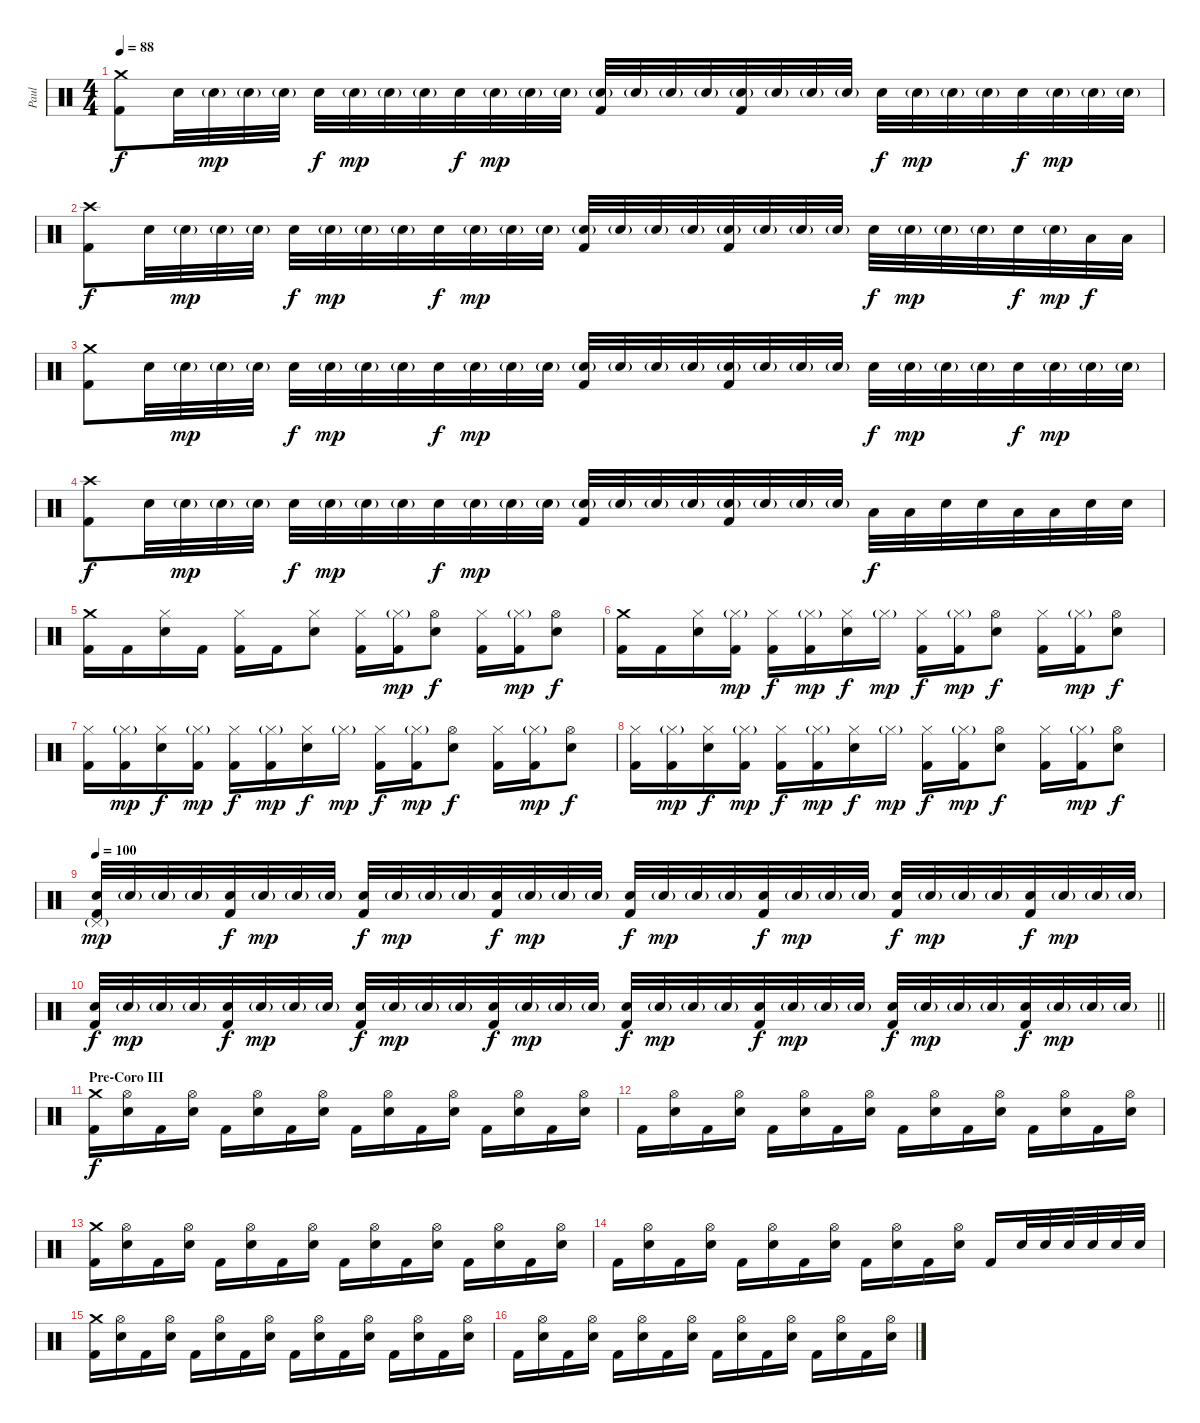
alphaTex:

\track ("Paul" "Paul") {instrument percussion}
\staff
\articulation defaults
\ts (4 4)
\tempo 88
\clef neutral
\ks c
("Crash medium (hit)" "Kick (hit) 2").8{dy f} "Electric Snare (hit)".32 "Electric Snare (hit)"{g}.32{dy mp} "Electric Snare (hit)"{g}.32 "Electric Snare (hit)"{g}.32 "Electric Snare (hit)".32{dy f} "Electric Snare (hit)"{g}.32{dy mp} "Electric Snare (hit)"{g}.32 "Electric Snare (hit)"{g}.32 "Electric Snare (hit)".32{dy f} "Electric Snare (hit)"{g}.32{dy mp} "Electric Snare (hit)"{g}.32 "Electric Snare (hit)"{g}.32 ("Electric Snare (hit)"{g} "Kick (hit) 2").32 "Electric Snare (hit)"{g}.32 "Electric Snare (hit)"{g}.32 "Electric Snare (hit)"{g}.32 ("Electric Snare (hit)"{g} "Kick (hit) 2").32 "Electric Snare (hit)"{g}.32 "Electric Snare (hit)"{g}.32 "Electric Snare (hit)"{g}.32 "Electric Snare (hit)".32{dy f} "Electric Snare (hit)"{g}.32{dy mp} "Electric Snare (hit)"{g}.32 "Electric Snare (hit)"{g}.32 "Electric Snare (hit)".32{dy f} "Electric Snare (hit)"{g}.32{dy mp} "Electric Snare (hit)"{g}.32 "Electric Snare (hit)"{g}.32 |
("Crash high (hit)" "Kick (hit) 2").8{dy f} "Electric Snare (hit)".32 "Electric Snare (hit)"{g}.32{dy mp} "Electric Snare (hit)"{g}.32 "Electric Snare (hit)"{g}.32 "Electric Snare (hit)".32{dy f} "Electric Snare (hit)"{g}.32{dy mp} "Electric Snare (hit)"{g}.32 "Electric Snare (hit)"{g}.32 "Electric Snare (hit)".32{dy f} "Electric Snare (hit)"{g}.32{dy mp} "Electric Snare (hit)"{g}.32 "Electric Snare (hit)"{g}.32 ("Electric Snare (hit)"{g} "Kick (hit) 2").32 "Electric Snare (hit)"{g}.32 "Electric Snare (hit)"{g}.32 "Electric Snare (hit)"{g}.32 ("Electric Snare (hit)"{g} "Kick (hit) 2").32 "Electric Snare (hit)"{g}.32 "Electric Snare (hit)"{g}.32 "Electric Snare (hit)"{g}.32 "Electric Snare (hit)".32{dy f} "Electric Snare (hit)"{g}.32{dy mp} "Electric Snare (hit)"{g}.32 "Electric Snare (hit)"{g}.32 "Electric Snare (hit)".32{dy f} "Electric Snare (hit)"{g}.32{dy mp} "Low Tom (hit)".32{dy f} "Low Tom (hit)".32 |
("Crash medium (hit)" "Kick (hit) 2").8 "Electric Snare (hit)".32 "Electric Snare (hit)"{g}.32{dy mp} "Electric Snare (hit)"{g}.32 "Electric Snare (hit)"{g}.32 "Electric Snare (hit)".32{dy f} "Electric Snare (hit)"{g}.32{dy mp} "Electric Snare (hit)"{g}.32 "Electric Snare (hit)"{g}.32 "Electric Snare (hit)".32{dy f} "Electric Snare (hit)"{g}.32{dy mp} "Electric Snare (hit)"{g}.32 "Electric Snare (hit)"{g}.32 ("Electric Snare (hit)"{g} "Kick (hit) 2").32 "Electric Snare (hit)"{g}.32 "Electric Snare (hit)"{g}.32 "Electric Snare (hit)"{g}.32 ("Electric Snare (hit)"{g} "Kick (hit) 2").32 "Electric Snare (hit)"{g}.32 "Electric Snare (hit)"{g}.32 "Electric Snare (hit)"{g}.32 "Electric Snare (hit)".32{dy f} "Electric Snare (hit)"{g}.32{dy mp} "Electric Snare (hit)"{g}.32 "Electric Snare (hit)"{g}.32 "Electric Snare (hit)".32{dy f} "Electric Snare (hit)"{g}.32{dy mp} "Electric Snare (hit)"{g}.32 "Electric Snare (hit)"{g}.32 |
("Crash high (hit)" "Kick (hit) 2").8{dy f} "Electric Snare (hit)".32 "Electric Snare (hit)"{g}.32{dy mp} "Electric Snare (hit)"{g}.32 "Electric Snare (hit)"{g}.32 "Electric Snare (hit)".32{dy f} "Electric Snare (hit)"{g}.32{dy mp} "Electric Snare (hit)"{g}.32 "Electric Snare (hit)"{g}.32 "Electric Snare (hit)".32{dy f} "Electric Snare (hit)"{g}.32{dy mp} "Electric Snare (hit)"{g}.32 "Electric Snare (hit)"{g}.32 ("Electric Snare (hit)"{g} "Kick (hit) 2").32 "Electric Snare (hit)"{g}.32 "Electric Snare (hit)"{g}.32 "Electric Snare (hit)"{g}.32 ("Electric Snare (hit)"{g} "Kick (hit) 2").32 "Electric Snare (hit)"{g}.32 "Electric Snare (hit)"{g}.32 "Electric Snare (hit)"{g}.32 "Low Tom (hit)".32{dy f} "Low Tom (hit)".32 "Electric Snare (hit)".32 "Electric Snare (hit)".32 "Low Tom (hit)".32 "Low Tom (hit)".32 "Electric Snare (hit)".32 "Electric Snare (hit)".32 |
("Crash medium (hit)" "Kick (hit) 2").16 "Kick (hit) 2".16 ("Hi-Hat (closed)" "Electric Snare (hit)").16 "Kick (hit) 2".16 ("Hi-Hat (closed)" "Kick (hit) 2").16 "Kick (hit) 2".16 ("Hi-Hat (closed)" "Electric Snare (hit)").8 ("Hi-Hat (closed)" "Kick (hit) 2").16 ("Hi-Hat (closed)"{g} "Kick (hit) 2").16{dy mp} ("Hi-Hat (open)" "Electric Snare (hit)").8{dy f} ("Hi-Hat (closed)" "Kick (hit) 2").16 ("Hi-Hat (closed)"{g} "Kick (hit) 2").16{dy mp} ("Hi-Hat (open)" "Electric Snare (hit)").8{dy f} |
("Crash medium (hit)" "Kick (hit) 2").16 "Kick (hit) 2".16 ("Hi-Hat (closed)" "Electric Snare (hit)").16 ("Hi-Hat (closed)"{g} "Kick (hit) 2").16{dy mp} ("Hi-Hat (closed)" "Kick (hit) 2").16{dy f} ("Hi-Hat (closed)"{g} "Kick (hit) 2").16{dy mp} ("Hi-Hat (closed)" "Electric Snare (hit)").16{dy f} "Hi-Hat (closed)"{g}.16{dy mp} ("Hi-Hat (closed)" "Kick (hit) 2").16{dy f} ("Hi-Hat (closed)"{g} "Kick (hit) 2").16{dy mp} ("Hi-Hat (open)" "Electric Snare (hit)").8{dy f} ("Hi-Hat (closed)" "Kick (hit) 2").16 ("Hi-Hat (closed)"{g} "Kick (hit) 2").16{dy mp} ("Hi-Hat (open)" "Electric Snare (hit)").8{dy f} |
("Hi-Hat (closed)" "Kick (hit) 2").16 ("Hi-Hat (closed)"{g} "Kick (hit) 2").16{dy mp} ("Hi-Hat (closed)" "Electric Snare (hit)").16{dy f} ("Hi-Hat (closed)"{g} "Kick (hit) 2").16{dy mp} ("Hi-Hat (closed)" "Kick (hit) 2").16{dy f} ("Hi-Hat (closed)"{g} "Kick (hit) 2").16{dy mp} ("Hi-Hat (closed)" "Electric Snare (hit)").16{dy f} "Hi-Hat (closed)"{g}.16{dy mp} ("Hi-Hat (closed)" "Kick (hit) 2").16{dy f} ("Hi-Hat (closed)"{g} "Kick (hit) 2").16{dy mp} ("Hi-Hat (open)" "Electric Snare (hit)").8{dy f} ("Hi-Hat (closed)" "Kick (hit) 2").16 ("Hi-Hat (closed)"{g} "Kick (hit) 2").16{dy mp} ("Hi-Hat (open)" "Electric Snare (hit)").8{dy f} |
("Hi-Hat (closed)" "Kick (hit) 2").16 ("Hi-Hat (closed)"{g} "Kick (hit) 2").16{dy mp} ("Hi-Hat (closed)" "Electric Snare (hit)").16{dy f} ("Hi-Hat (closed)"{g} "Kick (hit) 2").16{dy mp} ("Hi-Hat (closed)" "Kick (hit) 2").16{dy f} ("Hi-Hat (closed)"{g} "Kick (hit) 2").16{dy mp} ("Hi-Hat (closed)" "Electric Snare (hit)").16{dy f} "Hi-Hat (closed)"{g}.16{dy mp} ("Hi-Hat (closed)" "Kick (hit) 2").16{dy f} ("Hi-Hat (closed)"{g} "Kick (hit) 2").16{dy mp} ("Hi-Hat (open)" "Electric Snare (hit)").8{dy f} ("Hi-Hat (closed)" "Kick (hit) 2").16 ("Hi-Hat (closed)"{g} "Kick (hit) 2").16{dy mp} ("Hi-Hat (open)" "Electric Snare (hit)").8{dy f} |
\tempo 100
("Pedal Hi-Hat (hit)"{g} "Electric Snare (hit)" "Kick (hit) 2").32{dy mp} "Electric Snare (hit)"{g}.32 "Electric Snare (hit)"{g}.32 "Electric Snare (hit)"{g}.32 ("Electric Snare (hit)" "Kick (hit) 2").32{dy f} "Electric Snare (hit)"{g}.32{dy mp} "Electric Snare (hit)"{g}.32 "Electric Snare (hit)"{g}.32 ("Electric Snare (hit)" "Kick (hit) 2").32{dy f} "Electric Snare (hit)"{g}.32{dy mp} "Electric Snare (hit)"{g}.32 "Electric Snare (hit)"{g}.32 ("Electric Snare (hit)" "Kick (hit) 2").32{dy f} "Electric Snare (hit)"{g}.32{dy mp} "Electric Snare (hit)"{g}.32 "Electric Snare (hit)"{g}.32 ("Electric Snare (hit)" "Kick (hit) 2").32{dy f} "Electric Snare (hit)"{g}.32{dy mp} "Electric Snare (hit)"{g}.32 "Electric Snare (hit)"{g}.32 ("Electric Snare (hit)" "Kick (hit) 2").32{dy f} "Electric Snare (hit)"{g}.32{dy mp} "Electric Snare (hit)"{g}.32 "Electric Snare (hit)"{g}.32 ("Electric Snare (hit)" "Kick (hit) 2").32{dy f} "Electric Snare (hit)"{g}.32{dy mp} "Electric Snare (hit)"{g}.32 "Electric Snare (hit)"{g}.32 ("Electric Snare (hit)" "Kick (hit) 2").32{dy f} "Electric Snare (hit)"{g}.32{dy mp} "Electric Snare (hit)"{g}.32 "Electric Snare (hit)"{g}.32 |
\barLineRight lightlight
("Electric Snare (hit)" "Kick (hit) 2").32{dy f} "Electric Snare (hit)"{g}.32{dy mp} "Electric Snare (hit)"{g}.32 "Electric Snare (hit)"{g}.32 ("Electric Snare (hit)" "Kick (hit) 2").32{dy f} "Electric Snare (hit)"{g}.32{dy mp} "Electric Snare (hit)"{g}.32 "Electric Snare (hit)"{g}.32 ("Electric Snare (hit)" "Kick (hit) 2").32{dy f} "Electric Snare (hit)"{g}.32{dy mp} "Electric Snare (hit)"{g}.32 "Electric Snare (hit)"{g}.32 ("Electric Snare (hit)" "Kick (hit) 2").32{dy f} "Electric Snare (hit)"{g}.32{dy mp} "Electric Snare (hit)"{g}.32 "Electric Snare (hit)"{g}.32 ("Electric Snare (hit)" "Kick (hit) 2").32{dy f} "Electric Snare (hit)"{g}.32{dy mp} "Electric Snare (hit)"{g}.32 "Electric Snare (hit)"{g}.32 ("Electric Snare (hit)" "Kick (hit) 2").32{dy f} "Electric Snare (hit)"{g}.32{dy mp} "Electric Snare (hit)"{g}.32 "Electric Snare (hit)"{g}.32 ("Electric Snare (hit)" "Kick (hit) 2").32{dy f} "Electric Snare (hit)"{g}.32{dy mp} "Electric Snare (hit)"{g}.32 "Electric Snare (hit)"{g}.32 ("Electric Snare (hit)" "Kick (hit) 2").32{dy f} "Electric Snare (hit)"{g}.32{dy mp} "Electric Snare (hit)"{g}.32 "Electric Snare (hit)"{g}.32 |
\section ("" "Pre-Coro III")
("Crash medium (hit)" "Kick (hit) 2").16{dy f} ("Hi-Hat (open)" "Electric Snare (hit)").16 "Kick (hit) 2".16 ("Hi-Hat (open)" "Electric Snare (hit)").16 "Kick (hit) 2".16 ("Hi-Hat (open)" "Electric Snare (hit)").16 "Kick (hit) 2".16 ("Hi-Hat (open)" "Electric Snare (hit)").16 "Kick (hit) 2".16 ("Hi-Hat (open)" "Electric Snare (hit)").16 "Kick (hit) 2".16 ("Hi-Hat (open)" "Electric Snare (hit)").16 "Kick (hit) 2".16 ("Hi-Hat (open)" "Electric Snare (hit)").16 "Kick (hit) 2".16 ("Hi-Hat (open)" "Electric Snare (hit)").16 |
"Kick (hit) 2".16 ("Hi-Hat (open)" "Electric Snare (hit)").16 "Kick (hit) 2".16 ("Hi-Hat (open)" "Electric Snare (hit)").16 "Kick (hit) 2".16 ("Hi-Hat (open)" "Electric Snare (hit)").16 "Kick (hit) 2".16 ("Hi-Hat (open)" "Electric Snare (hit)").16 "Kick (hit) 2".16 ("Hi-Hat (open)" "Electric Snare (hit)").16 "Kick (hit) 2".16 ("Hi-Hat (open)" "Electric Snare (hit)").16 "Kick (hit) 2".16 ("Hi-Hat (open)" "Electric Snare (hit)").16 "Kick (hit) 2".16 ("Hi-Hat (open)" "Electric Snare (hit)").16 |
("Crash medium (hit)" "Kick (hit) 2").16 ("Hi-Hat (open)" "Electric Snare (hit)").16 "Kick (hit) 2".16 ("Hi-Hat (open)" "Electric Snare (hit)").16 "Kick (hit) 2".16 ("Hi-Hat (open)" "Electric Snare (hit)").16 "Kick (hit) 2".16 ("Hi-Hat (open)" "Electric Snare (hit)").16 "Kick (hit) 2".16 ("Hi-Hat (open)" "Electric Snare (hit)").16 "Kick (hit) 2".16 ("Hi-Hat (open)" "Electric Snare (hit)").16 "Kick (hit) 2".16 ("Hi-Hat (open)" "Electric Snare (hit)").16 "Kick (hit) 2".16 ("Hi-Hat (open)" "Electric Snare (hit)").16 |
"Kick (hit) 2".16 ("Hi-Hat (open)" "Electric Snare (hit)").16 "Kick (hit) 2".16 ("Hi-Hat (open)" "Electric Snare (hit)").16 "Kick (hit) 2".16 ("Hi-Hat (open)" "Electric Snare (hit)").16 "Kick (hit) 2".16 ("Hi-Hat (open)" "Electric Snare (hit)").16 "Kick (hit) 2".16 ("Hi-Hat (open)" "Electric Snare (hit)").16 "Kick (hit) 2".16 ("Hi-Hat (open)" "Electric Snare (hit)").16 "Kick (hit) 2".16 "Electric Snare (hit)".32 "Electric Snare (hit)".32 "Electric Snare (hit)".32 "Electric Snare (hit)".32 "Electric Snare (hit)".32 "Electric Snare (hit)".32 |
("Crash medium (hit)" "Kick (hit) 2").16 ("Hi-Hat (open)" "Electric Snare (hit)").16 "Kick (hit) 2".16 ("Hi-Hat (open)" "Electric Snare (hit)").16 "Kick (hit) 2".16 ("Hi-Hat (open)" "Electric Snare (hit)").16 "Kick (hit) 2".16 ("Hi-Hat (open)" "Electric Snare (hit)").16 "Kick (hit) 2".16 ("Hi-Hat (open)" "Electric Snare (hit)").16 "Kick (hit) 2".16 ("Hi-Hat (open)" "Electric Snare (hit)").16 "Kick (hit) 2".16 ("Hi-Hat (open)" "Electric Snare (hit)").16 "Kick (hit) 2".16 ("Hi-Hat (open)" "Electric Snare (hit)").16 |
"Kick (hit) 2".16 ("Hi-Hat (open)" "Electric Snare (hit)").16 "Kick (hit) 2".16 ("Hi-Hat (open)" "Electric Snare (hit)").16 "Kick (hit) 2".16 ("Hi-Hat (open)" "Electric Snare (hit)").16 "Kick (hit) 2".16 ("Hi-Hat (open)" "Electric Snare (hit)").16 "Kick (hit) 2".16 ("Hi-Hat (open)" "Electric Snare (hit)").16 "Kick (hit) 2".16 ("Hi-Hat (open)" "Electric Snare (hit)").16 "Kick (hit) 2".16 ("Hi-Hat (open)" "Electric Snare (hit)").16 "Kick (hit) 2".16 ("Hi-Hat (open)" "Electric Snare (hit)").16
